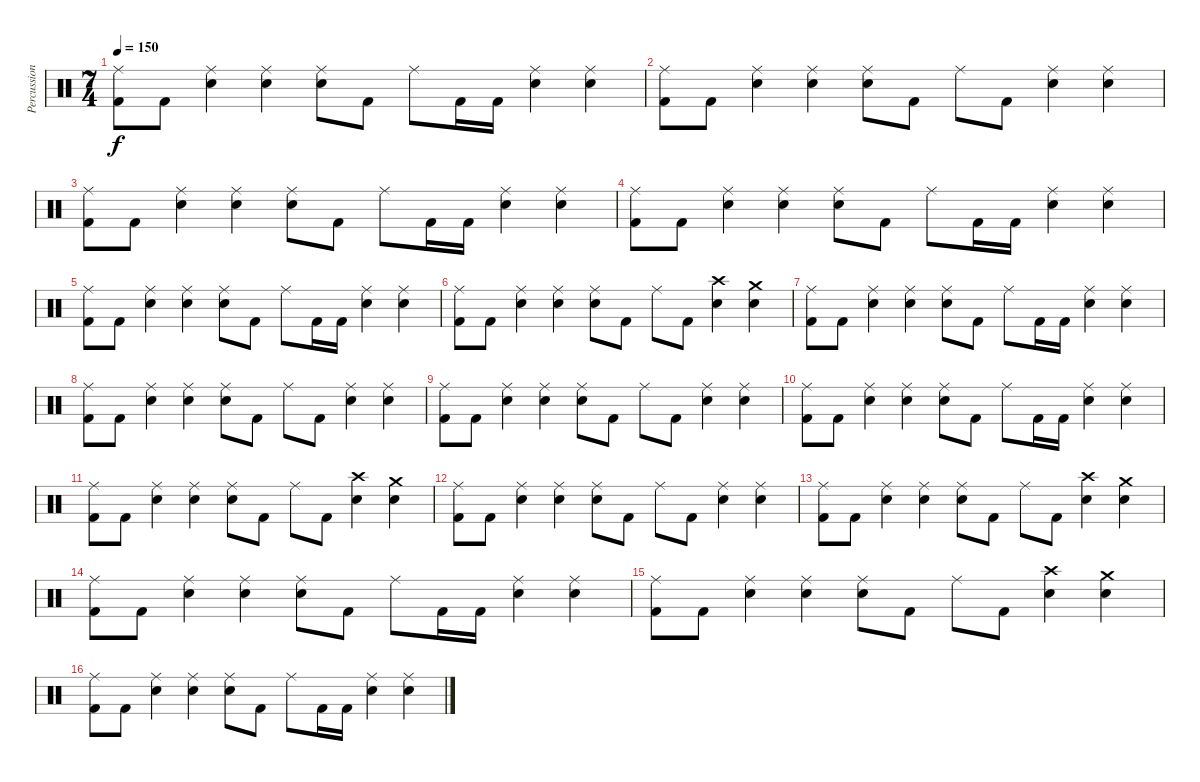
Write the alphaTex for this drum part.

\track ("Percussion" "Percussion") {instrument percussion}
\staff {score}
\articulation defaults
\ts (7 4)
\tempo 150
\clef neutral
\ks c
("Kick (hit) 2" "Ride (middle)").8{dy f} "Kick (hit) 2".8 ("Snare (hit) 2" "Ride (middle)").4 ("Snare (hit) 2" "Ride (middle)").4 ("Snare (hit) 2" "Ride (middle)").8 "Kick (hit) 2".8 "Ride (middle)".8 "Kick (hit) 2".16 "Kick (hit) 2".16 ("Snare (hit) 2" "Ride (middle)").4 ("Snare (hit) 2" "Ride (middle)").4 |
("Kick (hit) 2" "Ride (middle)").8 "Kick (hit) 2".8 ("Snare (hit) 2" "Ride (middle)").4 ("Snare (hit) 2" "Ride (middle)").4 ("Snare (hit) 2" "Ride (middle)").8 "Kick (hit) 2".8 "Ride (middle)".8 "Kick (hit) 2".8 ("Snare (hit) 2" "Ride (middle)").4 ("Snare (hit) 2" "Ride (middle)").4 |
("Kick (hit) 2" "Ride (middle)").8 "Kick (hit) 2".8 ("Snare (hit) 2" "Ride (middle)").4 ("Snare (hit) 2" "Ride (middle)").4 ("Snare (hit) 2" "Ride (middle)").8 "Kick (hit) 2".8 "Ride (middle)".8 "Kick (hit) 2".16 "Kick (hit) 2".16 ("Snare (hit) 2" "Ride (middle)").4 ("Snare (hit) 2" "Ride (middle)").4 |
("Kick (hit) 2" "Ride (middle)").8 "Kick (hit) 2".8 ("Snare (hit) 2" "Ride (middle)").4 ("Snare (hit) 2" "Ride (middle)").4 ("Snare (hit) 2" "Ride (middle)").8 "Kick (hit) 2".8 "Ride (middle)".8 "Kick (hit) 2".16 "Kick (hit) 2".16 ("Snare (hit) 2" "Ride (middle)").4 ("Snare (hit) 2" "Ride (middle)").4 |
("Kick (hit) 2" "Ride (middle)").8 "Kick (hit) 2".8 ("Snare (hit) 2" "Ride (middle)").4 ("Snare (hit) 2" "Ride (middle)").4 ("Snare (hit) 2" "Ride (middle)").8 "Kick (hit) 2".8 "Ride (middle)".8 "Kick (hit) 2".16 "Kick (hit) 2".16 ("Snare (hit) 2" "Ride (middle)").4 ("Snare (hit) 2" "Ride (middle)").4 |
("Kick (hit) 2" "Ride (middle)").8 "Kick (hit) 2".8 ("Snare (hit) 2" "Ride (middle)").4 ("Snare (hit) 2" "Ride (middle)").4 ("Snare (hit) 2" "Ride (middle)").8 "Kick (hit) 2".8 "Ride (middle)".8 "Kick (hit) 2".8 ("Snare (hit) 2" "Crash high (hit)").4 ("Snare (hit) 2" "Crash medium (hit)").4 |
("Kick (hit) 2" "Ride (middle)").8 "Kick (hit) 2".8 ("Snare (hit) 2" "Ride (middle)").4 ("Snare (hit) 2" "Ride (middle)").4 ("Snare (hit) 2" "Ride (middle)").8 "Kick (hit) 2".8 "Ride (middle)".8 "Kick (hit) 2".16 "Kick (hit) 2".16 ("Snare (hit) 2" "Ride (middle)").4 ("Snare (hit) 2" "Ride (middle)").4 |
("Kick (hit) 2" "Ride (middle)").8 "Kick (hit) 2".8 ("Snare (hit) 2" "Ride (middle)").4 ("Snare (hit) 2" "Ride (middle)").4 ("Snare (hit) 2" "Ride (middle)").8 "Kick (hit) 2".8 "Ride (middle)".8 "Kick (hit) 2".8 ("Snare (hit) 2" "Ride (middle)").4 ("Snare (hit) 2" "Ride (middle)").4 |
("Kick (hit) 2" "Ride (middle)").8 "Kick (hit) 2".8 ("Snare (hit) 2" "Ride (middle)").4 ("Snare (hit) 2" "Ride (middle)").4 ("Snare (hit) 2" "Ride (middle)").8 "Kick (hit) 2".8 "Ride (middle)".8 "Kick (hit) 2".8 ("Snare (hit) 2" "Ride (middle)").4 ("Snare (hit) 2" "Ride (middle)").4 |
("Kick (hit) 2" "Ride (middle)").8 "Kick (hit) 2".8 ("Snare (hit) 2" "Ride (middle)").4 ("Snare (hit) 2" "Ride (middle)").4 ("Snare (hit) 2" "Ride (middle)").8 "Kick (hit) 2".8 "Ride (middle)".8 "Kick (hit) 2".16 "Kick (hit) 2".16 ("Snare (hit) 2" "Ride (middle)").4 ("Snare (hit) 2" "Ride (middle)").4 |
("Kick (hit) 2" "Ride (middle)").8 "Kick (hit) 2".8 ("Snare (hit) 2" "Ride (middle)").4 ("Snare (hit) 2" "Ride (middle)").4 ("Snare (hit) 2" "Ride (middle)").8 "Kick (hit) 2".8 "Ride (middle)".8 "Kick (hit) 2".8 ("Snare (hit) 2" "Crash high (hit)").4 ("Snare (hit) 2" "Crash medium (hit)").4 |
("Kick (hit) 2" "Ride (middle)").8 "Kick (hit) 2".8 ("Snare (hit) 2" "Ride (middle)").4 ("Snare (hit) 2" "Ride (middle)").4 ("Snare (hit) 2" "Ride (middle)").8 "Kick (hit) 2".8 "Ride (middle)".8 "Kick (hit) 2".8 ("Snare (hit) 2" "Ride (middle)").4 ("Snare (hit) 2" "Ride (middle)").4 |
("Kick (hit) 2" "Ride (middle)").8 "Kick (hit) 2".8 ("Snare (hit) 2" "Ride (middle)").4 ("Snare (hit) 2" "Ride (middle)").4 ("Snare (hit) 2" "Ride (middle)").8 "Kick (hit) 2".8 "Ride (middle)".8 "Kick (hit) 2".8 ("Snare (hit) 2" "Crash high (hit)").4 ("Snare (hit) 2" "Crash medium (hit)").4 |
("Kick (hit) 2" "Ride (middle)").8 "Kick (hit) 2".8 ("Snare (hit) 2" "Ride (middle)").4 ("Snare (hit) 2" "Ride (middle)").4 ("Snare (hit) 2" "Ride (middle)").8 "Kick (hit) 2".8 "Ride (middle)".8 "Kick (hit) 2".16 "Kick (hit) 2".16 ("Snare (hit) 2" "Ride (middle)").4 ("Snare (hit) 2" "Ride (middle)").4 |
("Kick (hit) 2" "Ride (middle)").8 "Kick (hit) 2".8 ("Snare (hit) 2" "Ride (middle)").4 ("Snare (hit) 2" "Ride (middle)").4 ("Snare (hit) 2" "Ride (middle)").8 "Kick (hit) 2".8 "Ride (middle)".8 "Kick (hit) 2".8 ("Snare (hit) 2" "Crash high (hit)").4 ("Snare (hit) 2" "Crash medium (hit)").4 |
("Kick (hit) 2" "Ride (middle)").8 "Kick (hit) 2".8 ("Snare (hit) 2" "Ride (middle)").4 ("Snare (hit) 2" "Ride (middle)").4 ("Snare (hit) 2" "Ride (middle)").8 "Kick (hit) 2".8 "Ride (middle)".8 "Kick (hit) 2".16 "Kick (hit) 2".16 ("Snare (hit) 2" "Ride (middle)").4 ("Snare (hit) 2" "Ride (middle)").4
